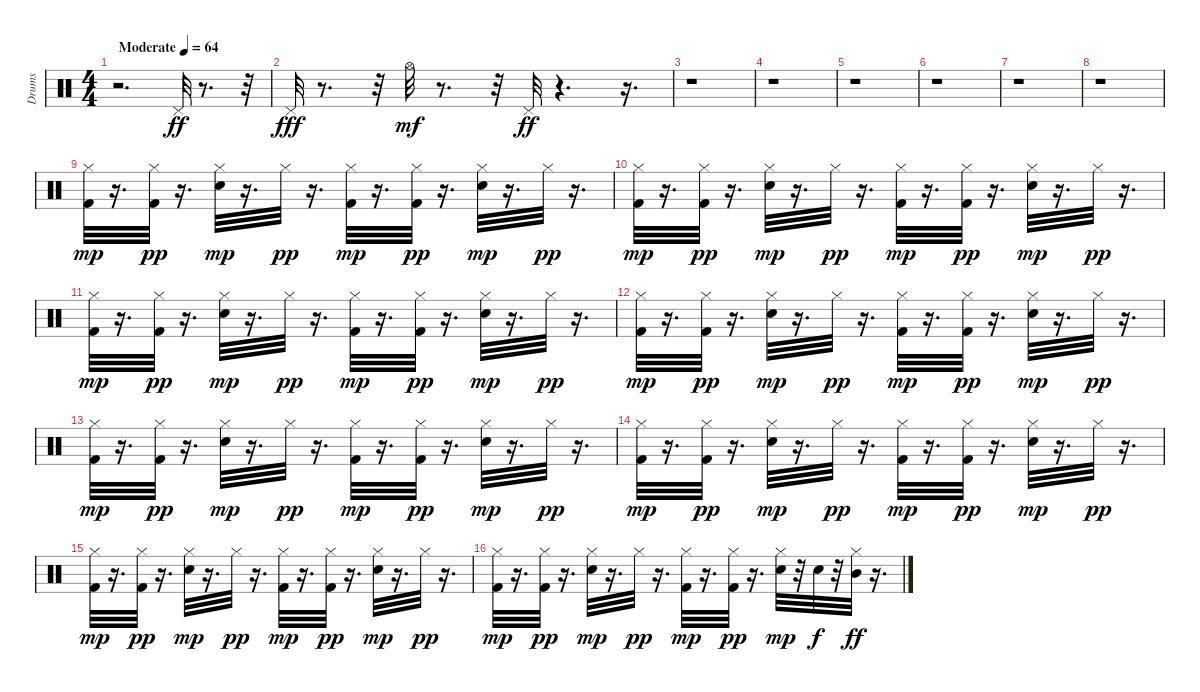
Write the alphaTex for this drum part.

\track ("Drums" "Drums") {instrument percussion}
\staff {score}
\articulation defaults
\ts (4 4)
\tempo (64 "Moderate")
\clef neutral
\ks c
r.2{d dy ff} "Pedal Hi-Hat (hit)".32 r.8{d} r.32 |
"Pedal Hi-Hat (hit)".32{dy fff} r.8{d} r.32 "Hi-Hat (open)".32{dy mf} r.8{d} r.32 "Pedal Hi-Hat (hit)".32{dy ff} r.4{d} r.16{d} |
r.1 |
r.1 |
r.1 |
r.1 |
r.1 |
r.1 |
("Kick (hit) 2" "Hi-Hat (closed)").32{dy mp} r.16{d} ("Kick (hit) 2" "Hi-Hat (closed)").32{dy pp} r.16{d} ("Snare (hit) 2" "Hi-Hat (closed)").32{dy mp} r.16{d} "Hi-Hat (closed)".32{dy pp} r.16{d} ("Kick (hit) 2" "Hi-Hat (closed)").32{dy mp} r.16{d} ("Kick (hit) 2" "Hi-Hat (closed)").32{dy pp} r.16{d} ("Snare (hit) 2" "Hi-Hat (closed)").32{dy mp} r.16{d} "Hi-Hat (closed)".32{dy pp} r.16{d} |
("Kick (hit) 2" "Hi-Hat (closed)").32{dy mp} r.16{d} ("Kick (hit) 2" "Hi-Hat (closed)").32{dy pp} r.16{d} ("Snare (hit) 2" "Hi-Hat (closed)").32{dy mp} r.16{d} "Hi-Hat (closed)".32{dy pp} r.16{d} ("Kick (hit) 2" "Hi-Hat (closed)").32{dy mp} r.16{d} ("Kick (hit) 2" "Hi-Hat (closed)").32{dy pp} r.16{d} ("Snare (hit) 2" "Hi-Hat (closed)").32{dy mp} r.16{d} "Hi-Hat (closed)".32{dy pp} r.16{d} |
("Kick (hit) 2" "Hi-Hat (closed)").32{dy mp} r.16{d} ("Kick (hit) 2" "Hi-Hat (closed)").32{dy pp} r.16{d} ("Snare (hit) 2" "Hi-Hat (closed)").32{dy mp} r.16{d} "Hi-Hat (closed)".32{dy pp} r.16{d} ("Kick (hit) 2" "Hi-Hat (closed)").32{dy mp} r.16{d} ("Kick (hit) 2" "Hi-Hat (closed)").32{dy pp} r.16{d} ("Snare (hit) 2" "Hi-Hat (closed)").32{dy mp} r.16{d} "Hi-Hat (closed)".32{dy pp} r.16{d} |
("Kick (hit) 2" "Hi-Hat (closed)").32{dy mp} r.16{d} ("Kick (hit) 2" "Hi-Hat (closed)").32{dy pp} r.16{d} ("Snare (hit) 2" "Hi-Hat (closed)").32{dy mp} r.16{d} "Hi-Hat (closed)".32{dy pp} r.16{d} ("Kick (hit) 2" "Hi-Hat (closed)").32{dy mp} r.16{d} ("Kick (hit) 2" "Hi-Hat (closed)").32{dy pp} r.16{d} ("Snare (hit) 2" "Hi-Hat (closed)").32{dy mp} r.16{d} "Hi-Hat (closed)".32{dy pp} r.16{d} |
("Kick (hit) 2" "Hi-Hat (closed)").32{dy mp} r.16{d} ("Kick (hit) 2" "Hi-Hat (closed)").32{dy pp} r.16{d} ("Snare (hit) 2" "Hi-Hat (closed)").32{dy mp} r.16{d} "Hi-Hat (closed)".32{dy pp} r.16{d} ("Kick (hit) 2" "Hi-Hat (closed)").32{dy mp} r.16{d} ("Kick (hit) 2" "Hi-Hat (closed)").32{dy pp} r.16{d} ("Snare (hit) 2" "Hi-Hat (closed)").32{dy mp} r.16{d} "Hi-Hat (closed)".32{dy pp} r.16{d} |
("Kick (hit) 2" "Hi-Hat (closed)").32{dy mp} r.16{d} ("Kick (hit) 2" "Hi-Hat (closed)").32{dy pp} r.16{d} ("Snare (hit) 2" "Hi-Hat (closed)").32{dy mp} r.16{d} "Hi-Hat (closed)".32{dy pp} r.16{d} ("Kick (hit) 2" "Hi-Hat (closed)").32{dy mp} r.16{d} ("Kick (hit) 2" "Hi-Hat (closed)").32{dy pp} r.16{d} ("Snare (hit) 2" "Hi-Hat (closed)").32{dy mp} r.16{d} "Hi-Hat (closed)".32{dy pp} r.16{d} |
("Kick (hit) 2" "Hi-Hat (closed)").32{dy mp} r.16{d} ("Kick (hit) 2" "Hi-Hat (closed)").32{dy pp} r.16{d} ("Snare (hit) 2" "Hi-Hat (closed)").32{dy mp} r.16{d} "Hi-Hat (closed)".32{dy pp} r.16{d} ("Kick (hit) 2" "Hi-Hat (closed)").32{dy mp} r.16{d} ("Kick (hit) 2" "Hi-Hat (closed)").32{dy pp} r.16{d} ("Snare (hit) 2" "Hi-Hat (closed)").32{dy mp} r.16{d} "Hi-Hat (closed)".32{dy pp} r.16{d} |
("Kick (hit) 2" "Hi-Hat (closed)").32{dy mp} r.16{d} ("Kick (hit) 2" "Hi-Hat (closed)").32{dy pp} r.16{d} ("Snare (hit) 2" "Hi-Hat (closed)").32{dy mp} r.16{d} "Hi-Hat (closed)".32{dy pp} r.16{d} ("Kick (hit) 2" "Hi-Hat (closed)").32{dy mp} r.16{d} ("Kick (hit) 2" "Hi-Hat (closed)").32{dy pp} r.16{d} ("Snare (hit) 2" "Hi-Hat (closed)").32{dy mp} r.32 "Snare (hit) 2".32{dy f} r.32 ("Hi-Hat (closed)" "Mid Tom (hit)").32{dy ff} r.16{d}
